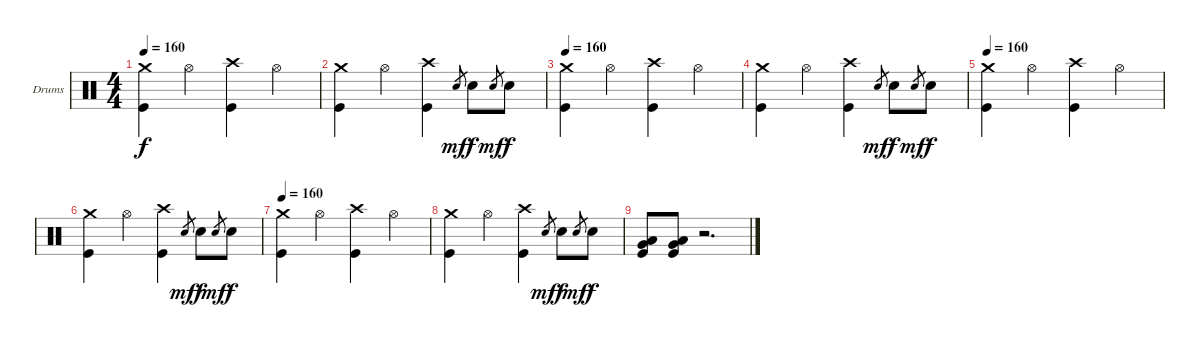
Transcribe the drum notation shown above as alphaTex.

\bracketExtendMode groupsimilarinstruments
\firstSystemTrackNameOrientation horizontal
\otherSystemsTrackNameOrientation horizontal
\track ("Drumkit" "Drums") {instrument percussion}
\staff {score}
\articulation defaults
\ts (4 4)
\tempo 160
\clef neutral
\ks c
("Crash medium (hit)" "Kick (hit)").4{dy f} "Hi-Hat (open)".4 ("Kick (hit)" "Crash high (hit)").4 "Hi-Hat (open)".4 |
("Crash medium (hit)" "Kick (hit)").4 "Hi-Hat (open)".4 ("Crash high (hit)" "Kick (hit)").4 "Snare (hit) 2".8{gr dy mf} "Snare (hit) 2".8{dy f} "Snare (hit) 2".8{gr dy mf} "Snare (hit) 2".8{dy f} |
\tempo 160
("Crash medium (hit)" "Kick (hit)").4 "Hi-Hat (open)".4 ("Kick (hit)" "Crash high (hit)").4 "Hi-Hat (open)".4 |
("Crash medium (hit)" "Kick (hit)").4 "Hi-Hat (open)".4 ("Crash high (hit)" "Kick (hit)").4 "Snare (hit) 2".8{gr dy mf} "Snare (hit) 2".8{dy f} "Snare (hit) 2".8{gr dy mf} "Snare (hit) 2".8{dy f} |
\tempo 160
("Crash medium (hit)" "Kick (hit)").4 "Hi-Hat (open)".4 ("Kick (hit)" "Crash high (hit)").4 "Hi-Hat (open)".4 |
("Crash medium (hit)" "Kick (hit)").4 "Hi-Hat (open)".4 ("Crash high (hit)" "Kick (hit)").4 "Snare (hit) 2".8{gr dy mf} "Snare (hit) 2".8{dy f} "Snare (hit) 2".8{gr dy mf} "Snare (hit) 2".8{dy f} |
\tempo 160
("Crash medium (hit)" "Kick (hit)").4 "Hi-Hat (open)".4 ("Kick (hit)" "Crash high (hit)").4 "Hi-Hat (open)".4 |
("Crash medium (hit)" "Kick (hit)").4 "Hi-Hat (open)".4 ("Crash high (hit)" "Kick (hit)").4 "Snare (hit) 2".8{gr dy mf} "Snare (hit) 2".8{dy f} "Snare (hit) 2".8{gr dy mf} "Snare (hit) 2".8{dy f} |
("Low Tom (hit)" "Very Low Tom (hit)" "Kick (hit)").8 ("Low Tom (hit)" "Very Low Tom (hit)" "Kick (hit)").8 r.2{d}
